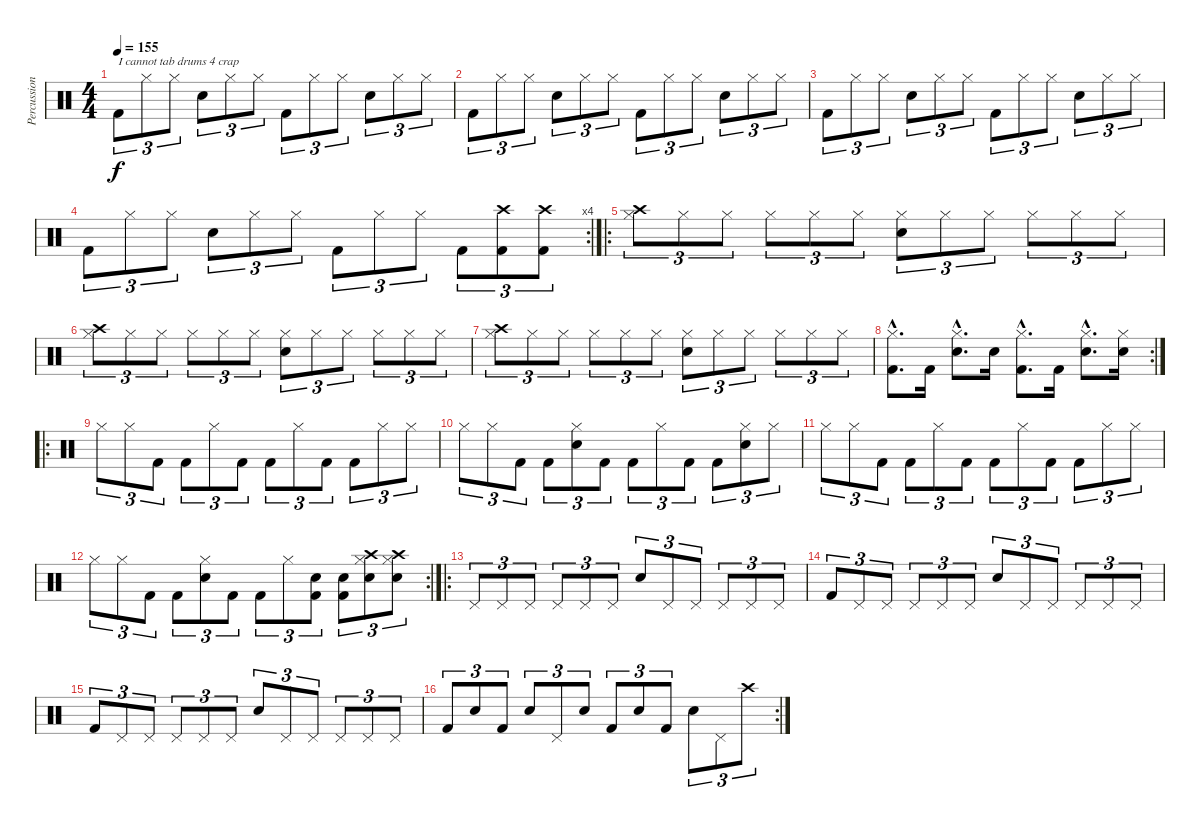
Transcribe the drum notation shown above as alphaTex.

\track ("Percussion" "Percussion") {instrument percussion}
\staff {score}
\articulation defaults
\ts (4 4)
\tempo 155
\clef neutral
\ks c "Kick (hit) 2".8{tu (3 2) txt "I cannot tab drums 4 crap" dy f} "Hi-Hat (closed)".8{tu (3 2)} "Hi-Hat (closed)".8{tu (3 2)} "Snare (hit) 2".8{tu (3 2)} "Hi-Hat (closed)".8{tu (3 2)} "Hi-Hat (closed)".8{tu (3 2)} "Kick (hit) 2".8{tu (3 2)} "Hi-Hat (closed)".8{tu (3 2)} "Hi-Hat (closed)".8{tu (3 2)} "Snare (hit) 2".8{tu (3 2)} "Hi-Hat (closed)".8{tu (3 2)} "Hi-Hat (closed)".8{tu (3 2)}
|
"Kick (hit) 2".8{tu (3 2)} "Hi-Hat (closed)".8{tu (3 2)} "Hi-Hat (closed)".8{tu (3 2)} "Snare (hit) 2".8{tu (3 2)} "Hi-Hat (closed)".8{tu (3 2)} "Hi-Hat (closed)".8{tu (3 2)} "Kick (hit) 2".8{tu (3 2)} "Hi-Hat (closed)".8{tu (3 2)} "Hi-Hat (closed)".8{tu (3 2)} "Snare (hit) 2".8{tu (3 2)} "Hi-Hat (closed)".8{tu (3 2)} "Hi-Hat (closed)".8{tu (3 2)} |
"Kick (hit) 2".8{tu (3 2)} "Hi-Hat (closed)".8{tu (3 2)} "Hi-Hat (closed)".8{tu (3 2)} "Snare (hit) 2".8{tu (3 2)} "Hi-Hat (closed)".8{tu (3 2)} "Hi-Hat (closed)".8{tu (3 2)} "Kick (hit) 2".8{tu (3 2)} "Hi-Hat (closed)".8{tu (3 2)} "Hi-Hat (closed)".8{tu (3 2)} "Snare (hit) 2".8{tu (3 2)} "Hi-Hat (closed)".8{tu (3 2)} "Hi-Hat (closed)".8{tu (3 2)} |
\rc 4 "Kick (hit) 2".8{tu (3 2)} "Hi-Hat (closed)".8{tu (3 2)} "Hi-Hat (closed)".8{tu (3 2)} "Snare (hit) 2".8{tu (3 2)} "Hi-Hat (closed)".8{tu (3 2)} "Hi-Hat (closed)".8{tu (3 2)} "Kick (hit) 2".8{tu (3 2)} "Hi-Hat (closed)".8{tu (3 2)} "Hi-Hat (closed)".8{tu (3 2)} "Kick (hit) 2".8{tu (3 2)}
("Crash high (hit)" "Kick (hit) 2").8{tu (3 2)} ("Crash high (hit)" "Kick (hit) 2").8{tu (3 2)} |
\ro
("Crash high (hit)" "Hi-Hat (closed)").8{tu (3 2)} "Hi-Hat (closed)".8{tu (3 2)} "Hi-Hat (closed)".8{tu (3 2)} "Hi-Hat (closed)".8{tu (3 2)} "Hi-Hat (closed)".8{tu (3 2)} "Hi-Hat (closed)".8{tu (3 2)} ("Electric Snare (hit)" "Hi-Hat (closed)").8{tu (3 2)} "Hi-Hat (closed)".8{tu (3 2)} "Hi-Hat (closed)".8{tu (3 2)} "Hi-Hat (closed)".8{tu (3 2)} "Hi-Hat (closed)".8{tu (3 2)} "Hi-Hat (closed)".8{tu (3 2)} |
("Crash high (hit)" "Hi-Hat (closed)").8{tu (3 2)} "Hi-Hat (closed)".8{tu (3 2)} "Hi-Hat (closed)".8{tu (3 2)} "Hi-Hat (closed)".8{tu (3 2)} "Hi-Hat (closed)".8{tu (3 2)} "Hi-Hat (closed)".8{tu (3 2)} ("Electric Snare (hit)" "Hi-Hat (closed)").8{tu (3 2)} "Hi-Hat (closed)".8{tu (3 2)} "Hi-Hat (closed)".8{tu (3 2)} "Hi-Hat (closed)".8{tu (3 2)} "Hi-Hat (closed)".8{tu (3 2)} "Hi-Hat (closed)".8{tu (3 2)} |
("Crash high (hit)" "Hi-Hat (closed)").8{tu (3 2)} "Hi-Hat (closed)".8{tu (3 2)} "Hi-Hat (closed)".8{tu (3 2)} "Hi-Hat (closed)".8{tu (3 2)} "Hi-Hat (closed)".8{tu (3 2)} "Hi-Hat (closed)".8{tu (3 2)} ("Electric Snare (hit)" "Hi-Hat (closed)").8{tu (3 2)} "Hi-Hat (closed)".8{tu (3 2)} "Hi-Hat (closed)".8{tu (3 2)} "Hi-Hat (closed)".8{tu (3 2)} "Hi-Hat (closed)".8{tu (3 2)} "Hi-Hat (closed)".8{tu (3 2)} |
\rc 2
("Hi-Hat (closed)"{hac} "Kick (hit) 2"{hac}).8{d} "Kick (hit) 2".16 ("Hi-Hat (closed)"{hac} "Electric Snare (hit)"{hac}).8{d} "Electric Snare (hit)".16 ("Hi-Hat (closed)"{hac} "Kick (hit) 2"{hac}).8{d} "Kick (hit) 2".16 ("Hi-Hat (closed)"{hac} "Electric Snare (hit)"{hac}).8{d} ("Hi-Hat (closed)" "Electric Snare (hit)").16 |
\ro "Hi-Hat (closed)".8{tu (3 2)} "Hi-Hat (closed)".8{tu (3 2)} "Kick (hit) 2".8{tu (3 2)} "Kick (hit) 2".8{tu (3 2)} "Hi-Hat (closed)".8{tu (3 2)} "Kick (hit) 2".8{tu (3 2)} "Kick (hit) 2".8{tu (3 2)} "Hi-Hat (closed)".8{tu (3 2)} "Kick (hit) 2".8{tu (3 2)} "Kick (hit) 2".8{tu (3 2)} "Hi-Hat (closed)".8{tu (3 2)} "Hi-Hat (closed)".8{tu (3 2)}
|
"Hi-Hat (closed)".8{tu (3 2)} "Hi-Hat (closed)".8{tu (3 2)} "Kick (hit) 2".8{tu (3 2)} "Kick (hit) 2".8{tu (3 2)} ("Hi-Hat (closed)" "Electric Snare (hit)").8{tu (3 2)} "Kick (hit) 2".8{tu (3 2)} "Kick (hit) 2".8{tu (3 2)} "Hi-Hat (closed)".8{tu (3 2)} "Kick (hit) 2".8{tu (3 2)} "Kick (hit) 2".8{tu (3 2)} ("Hi-Hat (closed)" "Electric Snare (hit)").8{tu (3 2)} "Hi-Hat (closed)".8{tu (3 2)} |
"Hi-Hat (closed)".8{tu (3 2)} "Hi-Hat (closed)".8{tu (3 2)} "Kick (hit) 2".8{tu (3 2)} "Kick (hit) 2".8{tu (3 2)} "Hi-Hat (closed)".8{tu (3 2)} "Kick (hit) 2".8{tu (3 2)} "Kick (hit) 2".8{tu (3 2)} "Hi-Hat (closed)".8{tu (3 2)} "Kick (hit) 2".8{tu (3 2)} "Kick (hit) 2".8{tu (3 2)} "Hi-Hat (closed)".8{tu (3 2)} "Hi-Hat (closed)".8{tu (3 2)} |
\rc 2 "Hi-Hat (closed)".8{tu (3 2)} "Hi-Hat (closed)".8{tu (3 2)} "Kick (hit) 2".8{tu (3 2)} "Kick (hit) 2".8{tu (3 2)}
("Hi-Hat (closed)" "Electric Snare (hit)").8{tu (3 2)} "Kick (hit) 2".8{tu (3 2)} "Kick (hit) 2".8{tu (3 2)} "Hi-Hat (closed)".8{tu (3 2)} ("Electric Snare (hit)" "Kick (hit) 2").8{tu (3 2)} ("Electric Snare (hit)" "Kick (hit) 2").8{tu (3 2)} ("Crash high (hit)" "Hi-Hat (closed)" "Electric Snare (hit)").8{tu (3 2)} ("Crash high (hit)" "Electric Snare (hit)" "Hi-Hat (closed)").8{tu (3 2)} |
\ro "Pedal Hi-Hat (hit)".8{tu (3 2)} "Pedal Hi-Hat (hit)".8{tu (3 2)} "Pedal Hi-Hat (hit)".8{tu (3 2)} "Pedal Hi-Hat (hit)".8{tu (3 2)} "Pedal Hi-Hat (hit)".8{tu (3 2)} "Pedal Hi-Hat (hit)".8{tu (3 2)} "Electric Snare (hit)".8{tu (3 2)} "Pedal Hi-Hat (hit)".8{tu (3 2)} "Pedal Hi-Hat (hit)".8{tu (3 2)} "Pedal Hi-Hat (hit)".8{tu (3 2)} "Pedal Hi-Hat (hit)".8{tu (3 2)} "Pedal Hi-Hat (hit)".8{tu (3 2)}
|
"Kick (hit) 2".8{tu (3 2)} "Pedal Hi-Hat (hit)".8{tu (3 2)} "Pedal Hi-Hat (hit)".8{tu (3 2)} "Pedal Hi-Hat (hit)".8{tu (3 2)} "Pedal Hi-Hat (hit)".8{tu (3 2)} "Pedal Hi-Hat (hit)".8{tu (3 2)} "Electric Snare (hit)".8{tu (3 2)} "Pedal Hi-Hat (hit)".8{tu (3 2)} "Pedal Hi-Hat (hit)".8{tu (3 2)} "Pedal Hi-Hat (hit)".8{tu (3 2)} "Pedal Hi-Hat (hit)".8{tu (3 2)} "Pedal Hi-Hat (hit)".8{tu (3 2)} |
"Kick (hit) 2".8{tu (3 2)} "Pedal Hi-Hat (hit)".8{tu (3 2)} "Pedal Hi-Hat (hit)".8{tu (3 2)} "Pedal Hi-Hat (hit)".8{tu (3 2)} "Pedal Hi-Hat (hit)".8{tu (3 2)} "Pedal Hi-Hat (hit)".8{tu (3 2)} "Electric Snare (hit)".8{tu (3 2)} "Pedal Hi-Hat (hit)".8{tu (3 2)} "Pedal Hi-Hat (hit)".8{tu (3 2)} "Pedal Hi-Hat (hit)".8{tu (3 2)} "Pedal Hi-Hat (hit)".8{tu (3 2)} "Pedal Hi-Hat (hit)".8{tu (3 2)} |
\rc 2 "Kick (hit) 2".8{tu (3 2)} "Electric Snare (hit)".8{tu (3 2)} "Kick (hit) 2".8{tu (3 2)} "Electric Snare (hit)".8{tu (3 2)} "Pedal Hi-Hat (hit)".8{tu (3 2)} "Electric Snare (hit)".8{tu (3 2)} "Kick (hit) 2".8{tu (3 2)} "Electric Snare (hit)".8{tu (3 2)} "Kick (hit) 2".8{tu (3 2)} "Electric Snare (hit)".8{tu (3 2)} "Pedal Hi-Hat (hit)".8{tu (3 2)} "Crash high (hit)".8{tu (3 2)}
